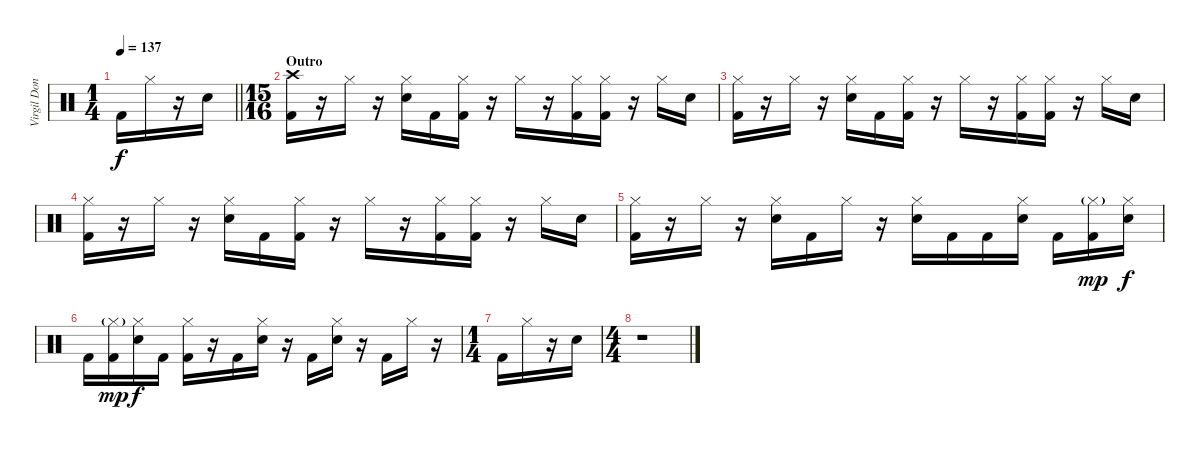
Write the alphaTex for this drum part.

\track ("Virgil Donati" "Virgil Don") {instrument percussion}
\staff {score}
\articulation defaults
\ts (1 4)
\tempo 137
\clef neutral
\barLineRight lightlight
\ks c "Kick (hit) 2".16{dy f} "Hi-Hat (closed)".16
r.16 "Electric Snare (hit)".16 |
\ts (15 16)
\section ("" "Outro")
("Crash high (hit)" "Kick (hit) 2").16 r.16 "Hi-Hat (closed)".16 r.16 ("Hi-Hat (closed)" "Electric Snare (hit)").16 "Kick (hit) 2".16 ("Hi-Hat (closed)" "Kick (hit) 2").16 r.16 "Hi-Hat (closed)".16 r.16 ("Hi-Hat (closed)" "Kick (hit) 2").16 ("Hi-Hat (closed)" "Kick (hit) 2").16 r.16 "Hi-Hat (closed)".16 "Electric Snare (hit)".16 |
("Hi-Hat (closed)" "Kick (hit) 2").16 r.16 "Hi-Hat (closed)".16 r.16 ("Hi-Hat (closed)" "Electric Snare (hit)").16 "Kick (hit) 2".16 ("Hi-Hat (closed)" "Kick (hit) 2").16 r.16 "Hi-Hat (closed)".16 r.16 ("Hi-Hat (closed)" "Kick (hit) 2").16 ("Hi-Hat (closed)" "Kick (hit) 2").16 r.16 "Hi-Hat (closed)".16 "Electric Snare (hit)".16 |
("Hi-Hat (closed)" "Kick (hit) 2").16 r.16 "Hi-Hat (closed)".16 r.16 ("Hi-Hat (closed)" "Electric Snare (hit)").16 "Kick (hit) 2".16 ("Hi-Hat (closed)" "Kick (hit) 2").16 r.16 "Hi-Hat (closed)".16 r.16 ("Hi-Hat (closed)" "Kick (hit) 2").16 ("Hi-Hat (closed)" "Kick (hit) 2").16 r.16 "Hi-Hat (closed)".16 "Electric Snare (hit)".16 |
("Hi-Hat (closed)" "Kick (hit) 2").16 r.16 "Hi-Hat (closed)".16 r.16 ("Hi-Hat (closed)" "Electric Snare (hit)").16 "Kick (hit) 2".16 "Hi-Hat (closed)".16 r.16 ("Hi-Hat (closed)" "Electric Snare (hit)").16 "Kick (hit) 2".16 "Kick (hit) 2".16 ("Hi-Hat (closed)" "Electric Snare (hit)").16 "Kick (hit) 2".16 ("Hi-Hat (closed)"{g} "Kick (hit) 2").16{dy mp} ("Hi-Hat (closed)" "Electric Snare (hit)").16{dy f} |
"Kick (hit) 2".16 ("Hi-Hat (closed)"{g} "Kick (hit) 2").16{dy mp} ("Hi-Hat (closed)" "Electric Snare (hit)").16{dy f} "Kick (hit) 2".16 ("Hi-Hat (closed)" "Kick (hit) 2").16 r.16 "Kick (hit) 2".16 ("Hi-Hat (closed)" "Electric Snare (hit)").16 r.16 "Kick (hit) 2".16 ("Hi-Hat (closed)" "Electric Snare (hit)").16 r.16 "Kick (hit) 2".16 "Hi-Hat (closed)".16 r.16 |
\ts (1 4)
"Kick (hit) 2".16 "Hi-Hat (closed)".16 r.16 "Electric Snare (hit)".16 |
\ts (4 4)
r.1
